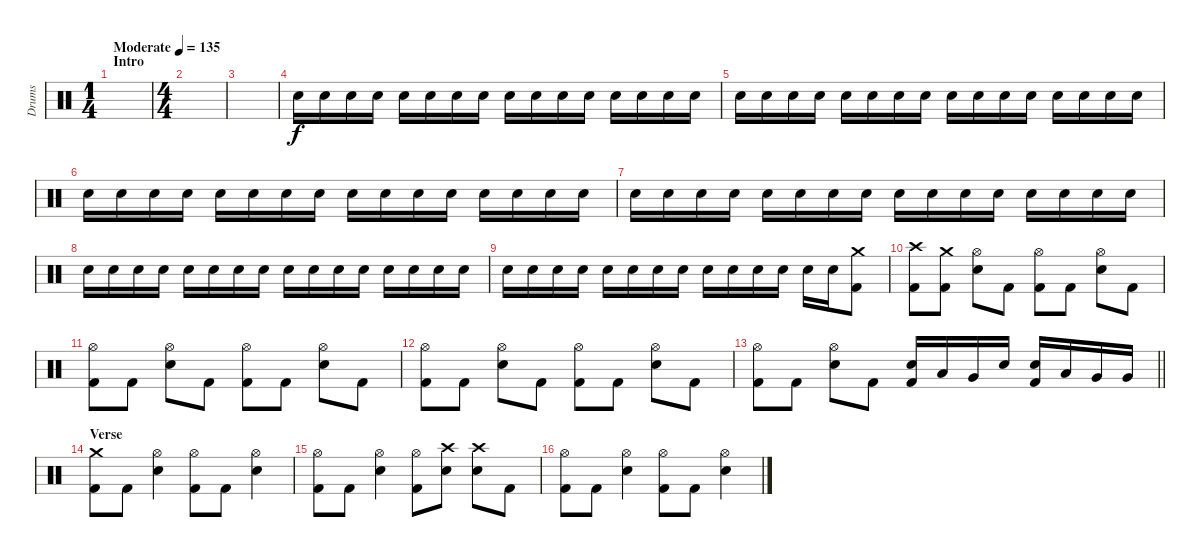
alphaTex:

\track ("Drums" "Drums") {instrument percussion}
\staff {score}
\articulation defaults
\ts (1 4)
\section ("" "Intro")
\tempo (135 "Moderate")
\clef neutral
\ks c
|
\ts (4 4)
|
|
"Electric Snare (hit)".16{volume 8} "Electric Snare (hit)".16 "Electric Snare (hit)".16 "Electric Snare (hit)".16 "Electric Snare (hit)".16 "Electric Snare (hit)".16 "Electric Snare (hit)".16 "Electric Snare (hit)".16 "Electric Snare (hit)".16 "Electric Snare (hit)".16 "Electric Snare (hit)".16 "Electric Snare (hit)".16 "Electric Snare (hit)".16 "Electric Snare (hit)".16 "Electric Snare (hit)".16 "Electric Snare (hit)".16 |
"Electric Snare (hit)".16 "Electric Snare (hit)".16 "Electric Snare (hit)".16 "Electric Snare (hit)".16 "Electric Snare (hit)".16 "Electric Snare (hit)".16 "Electric Snare (hit)".16 "Electric Snare (hit)".16 "Electric Snare (hit)".16 "Electric Snare (hit)".16 "Electric Snare (hit)".16 "Electric Snare (hit)".16 "Electric Snare (hit)".16 "Electric Snare (hit)".16 "Electric Snare (hit)".16 "Electric Snare (hit)".16 |
"Electric Snare (hit)".16 "Electric Snare (hit)".16 "Electric Snare (hit)".16 "Electric Snare (hit)".16 "Electric Snare (hit)".16 "Electric Snare (hit)".16 "Electric Snare (hit)".16 "Electric Snare (hit)".16 "Electric Snare (hit)".16 "Electric Snare (hit)".16 "Electric Snare (hit)".16 "Electric Snare (hit)".16 "Electric Snare (hit)".16 "Electric Snare (hit)".16 "Electric Snare (hit)".16 "Electric Snare (hit)".16 |
"Electric Snare (hit)".16{volume 12} "Electric Snare (hit)".16 "Electric Snare (hit)".16 "Electric Snare (hit)".16 "Electric Snare (hit)".16 "Electric Snare (hit)".16 "Electric Snare (hit)".16 "Electric Snare (hit)".16 "Electric Snare (hit)".16 "Electric Snare (hit)".16 "Electric Snare (hit)".16 "Electric Snare (hit)".16 "Electric Snare (hit)".16 "Electric Snare (hit)".16 "Electric Snare (hit)".16 "Electric Snare (hit)".16 |
"Electric Snare (hit)".16 "Electric Snare (hit)".16 "Electric Snare (hit)".16 "Electric Snare (hit)".16 "Electric Snare (hit)".16 "Electric Snare (hit)".16 "Electric Snare (hit)".16 "Electric Snare (hit)".16 "Electric Snare (hit)".16 "Electric Snare (hit)".16 "Electric Snare (hit)".16 "Electric Snare (hit)".16 "Electric Snare (hit)".16 "Electric Snare (hit)".16 "Electric Snare (hit)".16 "Electric Snare (hit)".16 |
"Electric Snare (hit)".16 "Electric Snare (hit)".16 "Electric Snare (hit)".16 "Electric Snare (hit)".16 "Electric Snare (hit)".16 "Electric Snare (hit)".16 "Electric Snare (hit)".16 "Electric Snare (hit)".16 "Electric Snare (hit)".16 "Electric Snare (hit)".16 "Electric Snare (hit)".16 "Electric Snare (hit)".16 "Electric Snare (hit)".16 "Electric Snare (hit)".16 ("Crash medium (hit)" "Kick (hit) 2").8 |
("Crash high (hit)" "Kick (hit) 2").8 ("Crash medium (hit)" "Kick (hit) 2").8 ("Hi-Hat (open)" "Electric Snare (hit)").8 "Kick (hit) 2".8 ("Hi-Hat (open)" "Kick (hit) 2").8 "Kick (hit) 2".8 ("Hi-Hat (open)" "Electric Snare (hit)").8 "Kick (hit) 2".8 |
("Hi-Hat (open)" "Kick (hit) 2").8 "Kick (hit) 2".8 ("Hi-Hat (open)" "Electric Snare (hit)").8 "Kick (hit) 2".8 ("Hi-Hat (open)" "Kick (hit) 2").8 "Kick (hit) 2".8 ("Hi-Hat (open)" "Electric Snare (hit)").8 "Kick (hit) 2".8 |
("Hi-Hat (open)" "Kick (hit) 2").8 "Kick (hit) 2".8 ("Hi-Hat (open)" "Electric Snare (hit)").8 "Kick (hit) 2".8 ("Hi-Hat (open)" "Kick (hit) 2").8 "Kick (hit) 2".8 ("Hi-Hat (open)" "Electric Snare (hit)").8 "Kick (hit) 2".8 |
\barLineRight lightlight
("Hi-Hat (open)" "Kick (hit) 2").8 "Kick (hit) 2".8 ("Hi-Hat (open)" "Electric Snare (hit)").8 "Kick (hit) 2".8 ("Electric Snare (hit)" "Kick (hit) 2").16 "Low Tom (hit)".16 "Very Low Tom (hit)".16 "Electric Snare (hit)".16 ("Electric Snare (hit)" "Kick (hit) 2").16 "Low Tom (hit)".16 "Very Low Tom (hit)".16 "Very Low Tom (hit)".16 |
\section ("" "Verse")
("Crash medium (hit)" "Kick (hit) 2").8 "Kick (hit) 2".8 ("Hi-Hat (open)" "Electric Snare (hit)").4 ("Hi-Hat (open)" "Kick (hit) 2").8 "Kick (hit) 2".8 ("Hi-Hat (open)" "Electric Snare (hit)").4 |
("Hi-Hat (open)" "Kick (hit) 2").8 "Kick (hit) 2".8 ("Hi-Hat (open)" "Electric Snare (hit)").4 ("Hi-Hat (open)" "Kick (hit) 2").8 ("Crash high (hit)" "Electric Snare (hit)").8 ("Crash high (hit)" "Electric Snare (hit)").8 "Kick (hit) 2".8 |
("Hi-Hat (open)" "Kick (hit) 2").8 "Kick (hit) 2".8 ("Hi-Hat (open)" "Electric Snare (hit)").4 ("Hi-Hat (open)" "Kick (hit) 2").8 "Kick (hit) 2".8 ("Hi-Hat (open)" "Electric Snare (hit)").4
